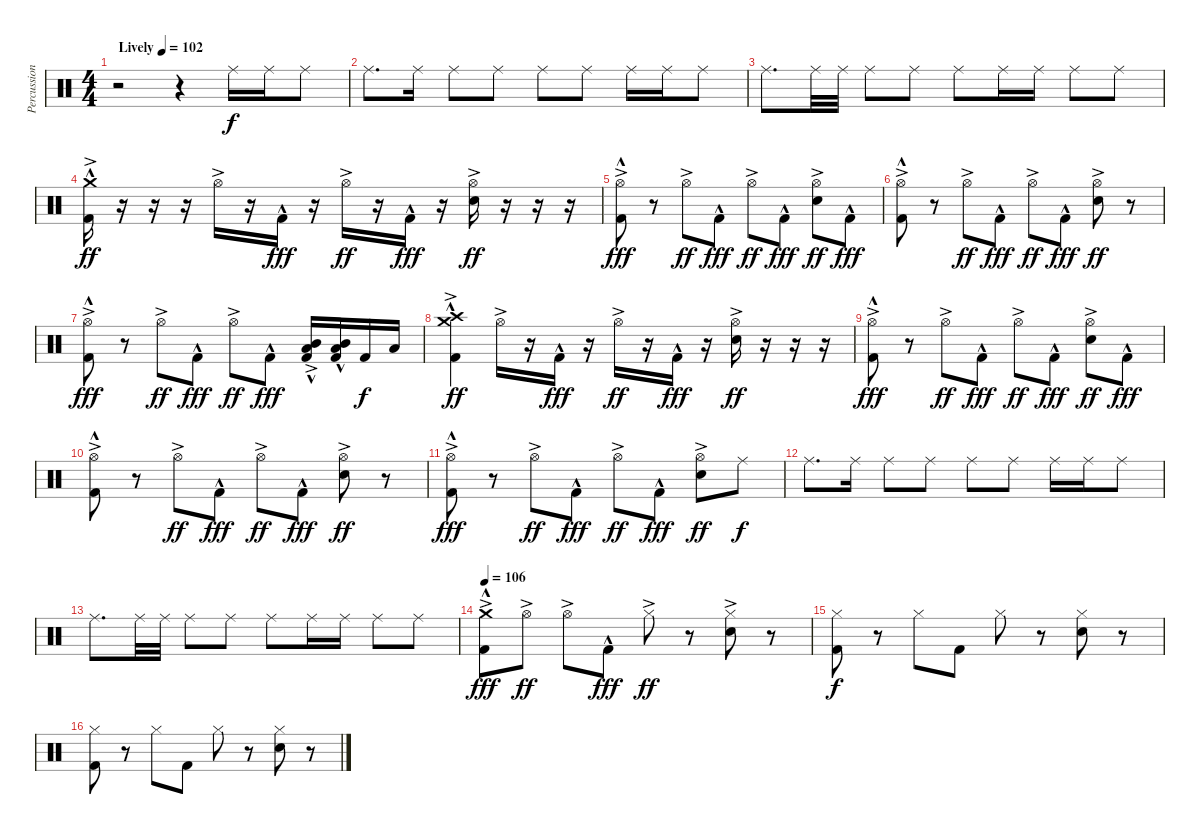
\track ("Percussion" "Percussion") {instrument percussion}
\staff {score}
\articulation defaults
\ts (4 4)
\tempo (102 "Lively")
\clef neutral
\ks c
r.2{dy f} r.4 "Ride (middle)".16 "Ride (middle)".16 "Ride (middle)".8 |
"Ride (middle)".8{d} "Ride (middle)".16 "Ride (middle)".8 "Ride (middle)".8 "Ride (middle)".8 "Ride (middle)".8 "Ride (middle)".16 "Ride (middle)".16 "Ride (middle)".8 |
"Ride (middle)".8{d} "Ride (middle)".32 "Ride (middle)".32 "Ride (middle)".8 "Ride (middle)".8 "Ride (middle)".8 "Ride (middle)".16 "Ride (middle)".16 "Ride (middle)".8 "Ride (middle)".8 |
("Crash medium (hit)"{hac} "Kick (hit) 2"{ac}).16{dy ff} r.16 r.16 r.16 "Hi-Hat (open)"{ac}.16 r.16 "Kick (hit) 2"{hac}.16{dy fff} r.16 "Hi-Hat (open)"{ac}.16{dy ff} r.16 "Kick (hit) 2"{hac}.16{dy fff} r.16 ("Hi-Hat (open)"{ac} "Snare (hit) 2"{ac}).16{dy ff} r.16 r.16 r.16 |
("Hi-Hat (open)"{ac} "Kick (hit) 2"{hac}).8{dy fff} r.8 "Hi-Hat (open)"{ac}.8{dy ff} "Kick (hit) 2"{hac}.8{dy fff} "Hi-Hat (open)"{ac}.8{dy ff} "Kick (hit) 2"{hac}.8{dy fff} ("Hi-Hat (open)"{ac} "Snare (hit) 2"{ac}).8{dy ff} "Kick (hit) 2"{hac}.8{dy fff} |
("Hi-Hat (open)"{ac} "Kick (hit) 2"{hac}).8 r.8 "Hi-Hat (open)"{ac}.8{dy ff} "Kick (hit) 2"{hac}.8{dy fff} "Hi-Hat (open)"{ac}.8{dy ff} "Kick (hit) 2"{hac}.8{dy fff} ("Hi-Hat (open)"{ac} "Snare (hit) 2"{ac}).8{dy ff} r.8 |
("Hi-Hat (open)"{ac} "Kick (hit) 2"{hac}).8{dy fff} r.8 "Hi-Hat (open)"{ac}.8{dy ff} "Kick (hit) 2"{hac}.8{dy fff} "Hi-Hat (open)"{ac}.8{dy ff} "Kick (hit) 2"{hac}.8{dy fff} ("Low Tom (hit)"{ac} "Mid Tom (hit)"{hac} "Kick (hit) 2").16 ("Low Tom (hit)"{hac} "Mid Tom (hit)"{hac} "Kick (hit) 2").16 "Kick (hit) 2".16{dy f} "Low Tom (hit)".16 |
("Crash medium (hit)"{hac} "Crash high (hit)"{hac} "Kick (hit) 2"{ac}).4{dy ff} "Hi-Hat (open)"{ac}.16 r.16 "Kick (hit) 2"{hac}.16{dy fff} r.16 "Hi-Hat (open)"{ac}.16{dy ff} r.16 "Kick (hit) 2"{hac}.16{dy fff} r.16 ("Hi-Hat (open)"{ac} "Snare (hit) 2"{ac}).16{dy ff} r.16 r.16 r.16 |
("Hi-Hat (open)"{ac} "Kick (hit) 2"{hac}).8{dy fff} r.8 "Hi-Hat (open)"{ac}.8{dy ff} "Kick (hit) 2"{hac}.8{dy fff} "Hi-Hat (open)"{ac}.8{dy ff} "Kick (hit) 2"{hac}.8{dy fff} ("Hi-Hat (open)"{ac} "Snare (hit) 2"{ac}).8{dy ff} "Kick (hit) 2"{hac}.8{dy fff} |
("Hi-Hat (open)"{ac} "Kick (hit) 2"{hac}).8 r.8 "Hi-Hat (open)"{ac}.8{dy ff} "Kick (hit) 2"{hac}.8{dy fff} "Hi-Hat (open)"{ac}.8{dy ff} "Kick (hit) 2"{hac}.8{dy fff} ("Hi-Hat (open)"{ac} "Snare (hit) 2"{ac}).8{dy ff} r.8 |
("Hi-Hat (open)"{ac} "Kick (hit) 2"{hac}).8{dy fff} r.8 "Hi-Hat (open)"{ac}.8{dy ff} "Kick (hit) 2"{hac}.8{dy fff} "Hi-Hat (open)"{ac}.8{dy ff} "Kick (hit) 2"{hac}.8{dy fff} ("Hi-Hat (open)"{ac} "Snare (hit) 2"{ac}).8{dy ff} "Ride (middle)".8{dy f} |
"Ride (middle)".8{d} "Ride (middle)".16 "Ride (middle)".8 "Ride (middle)".8 "Ride (middle)".8 "Ride (middle)".8 "Ride (middle)".16 "Ride (middle)".16 "Ride (middle)".8 |
"Ride (middle)".8{d} "Ride (middle)".32 "Ride (middle)".32 "Ride (middle)".8 "Ride (middle)".8 "Ride (middle)".8 "Ride (middle)".16 "Ride (middle)".16 "Ride (middle)".8 "Ride (middle)".8 |
\tempo 106
("Crash medium (hit)"{ac} "Kick (hit) 2"{hac}).8{dy fff} "Hi-Hat (open)"{ac}.8{dy ff} "Hi-Hat (open)"{ac}.8 "Kick (hit) 2"{hac}.8{dy fff} "Hi-Hat (closed)"{ac}.8{dy ff} r.8 ("Hi-Hat (closed)"{ac} "Snare (hit) 2"{ac}).8 r.8 |
("Hi-Hat (closed)" "Kick (hit) 2").8{dy f} r.8 "Hi-Hat (closed)".8 "Kick (hit) 2".8 "Hi-Hat (closed)".8 r.8 ("Hi-Hat (closed)" "Snare (hit) 2").8 r.8 |
("Hi-Hat (closed)" "Kick (hit) 2").8 r.8 "Hi-Hat (closed)".8 "Kick (hit) 2".8 "Hi-Hat (closed)".8 r.8 ("Hi-Hat (closed)" "Snare (hit) 2").8 r.8
